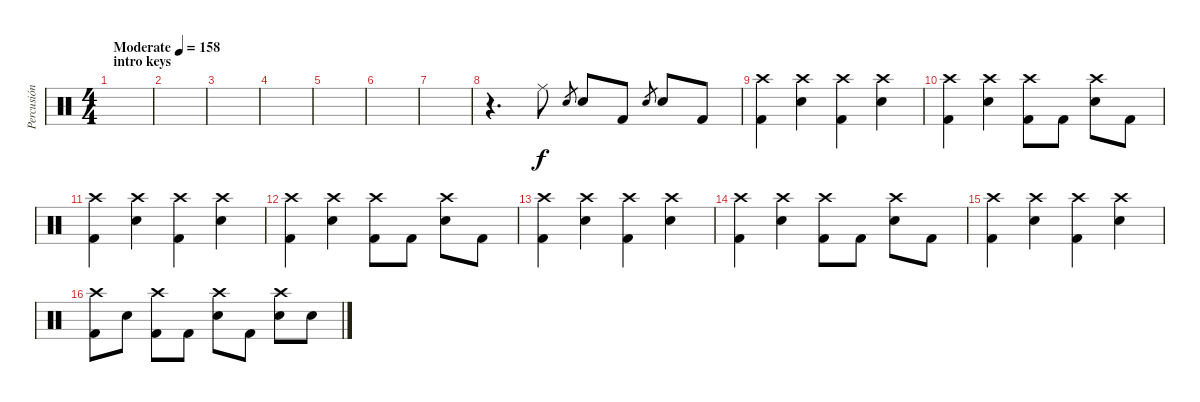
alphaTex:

\track ("Percusión" "Percusión") {instrument percussion}
\staff {score}
\articulation defaults
\ts (4 4)
\section ("" "intro keys")
\tempo (158 "Moderate")
\clef neutral
\ks c
|
|
|
|
|
|
|
r.4{d} "Ride (middle)".8 "Snare (hit) 2".8{gr} "Snare (hit) 2".8 "Kick (hit) 2".8 "Snare (hit) 2".8{gr} "Snare (hit) 2".8 "Kick (hit) 2".8 |
("Crash high (hit)" "Kick (hit) 2").4 ("Crash high (hit)" "Snare (hit) 2").4 ("Crash high (hit)" "Kick (hit) 2").4 ("Crash high (hit)" "Snare (hit) 2").4 |
("Crash high (hit)" "Kick (hit) 2").4 ("Crash high (hit)" "Snare (hit) 2").4 ("Crash high (hit)" "Kick (hit) 2").8 "Kick (hit) 2".8 ("Crash high (hit)" "Snare (hit) 2").8 "Kick (hit) 2".8 |
("Crash high (hit)" "Kick (hit) 2").4 ("Crash high (hit)" "Snare (hit) 2").4 ("Crash high (hit)" "Kick (hit) 2").4 ("Crash high (hit)" "Snare (hit) 2").4 |
("Crash high (hit)" "Kick (hit) 2").4 ("Crash high (hit)" "Snare (hit) 2").4 ("Crash high (hit)" "Kick (hit) 2").8 "Kick (hit) 2".8 ("Crash high (hit)" "Snare (hit) 2").8 "Kick (hit) 2".8 |
("Crash high (hit)" "Kick (hit) 2").4 ("Crash high (hit)" "Snare (hit) 2").4 ("Crash high (hit)" "Kick (hit) 2").4 ("Crash high (hit)" "Snare (hit) 2").4 |
("Crash high (hit)" "Kick (hit) 2").4 ("Crash high (hit)" "Snare (hit) 2").4 ("Crash high (hit)" "Kick (hit) 2").8 "Kick (hit) 2".8 ("Crash high (hit)" "Snare (hit) 2").8 "Kick (hit) 2".8 |
("Crash high (hit)" "Kick (hit) 2").4 ("Crash high (hit)" "Snare (hit) 2").4 ("Crash high (hit)" "Kick (hit) 2").4 ("Crash high (hit)" "Snare (hit) 2").4 |
("Crash high (hit)" "Kick (hit) 2").8 "Snare (hit) 2".8 ("Crash high (hit)" "Kick (hit) 2").8 "Kick (hit) 2".8 ("Crash high (hit)" "Snare (hit) 2").8 "Kick (hit) 2".8 ("Crash high (hit)" "Snare (hit) 2").8 "Snare (hit) 2".8
